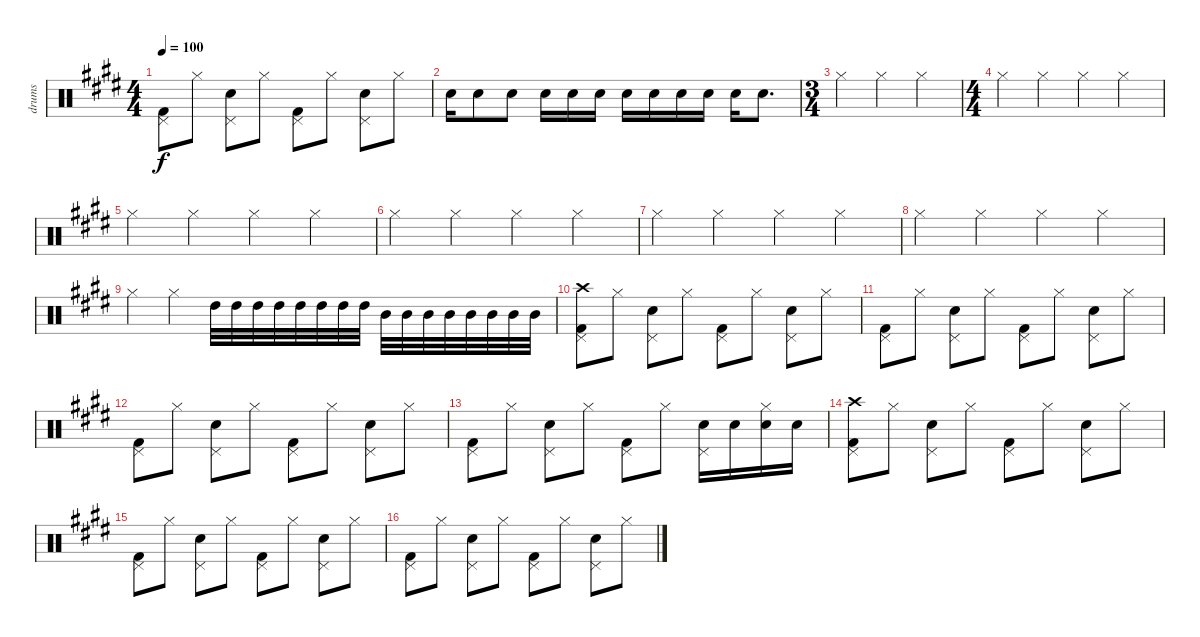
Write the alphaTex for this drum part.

\track ("drums" "drums") {instrument percussion}
\staff {score}
\articulation defaults
\ts (4 4)
\tempo 100
\clef neutral
\ks e
("Pedal Hi-Hat (hit)" "Kick (hit) 2").8{dy f} "Hi-Hat (closed)".8 ("Snare (hit) 2" "Pedal Hi-Hat (hit)").8 "Hi-Hat (closed)".8 ("Pedal Hi-Hat (hit)" "Kick (hit) 2").8 "Hi-Hat (closed)".8 ("Snare (hit) 2" "Pedal Hi-Hat (hit)").8 "Hi-Hat (closed)".8 |
"Snare (hit) 2".16 "Snare (hit) 2".8 "Snare (hit) 2".8 "Snare (hit) 2".16 "Snare (hit) 2".16 "Snare (hit) 2".16 "Snare (hit) 2".16 "Snare (hit) 2".16 "Snare (hit) 2".16 "Snare (hit) 2".16 "Snare (hit) 2".16 "Snare (hit) 2".8{d} |
\ts (3 4)
"Hi-Hat (closed)".4 "Hi-Hat (closed)".4 "Hi-Hat (closed)".4 |
\ts (4 4)
"Hi-Hat (closed)".4 "Hi-Hat (closed)".4 "Hi-Hat (closed)".4 "Hi-Hat (closed)".4 |
"Hi-Hat (closed)".4 "Hi-Hat (closed)".4 "Hi-Hat (closed)".4 "Hi-Hat (closed)".4 |
"Hi-Hat (closed)".4 "Hi-Hat (closed)".4 "Hi-Hat (closed)".4 "Hi-Hat (closed)".4 |
"Hi-Hat (closed)".4 "Hi-Hat (closed)".4 "Hi-Hat (closed)".4 "Hi-Hat (closed)".4 |
"Hi-Hat (closed)".4 "Hi-Hat (closed)".4 "Hi-Hat (closed)".4 "Hi-Hat (closed)".4 |
"Hi-Hat (closed)".4 "Hi-Hat (closed)".4 "High Tom (hit)".32 "High Tom (hit)".32 "High Tom (hit)".32 "High Tom (hit)".32 "High Tom (hit)".32 "High Tom (hit)".32 "High Tom (hit)".32 "High Tom (hit)".32 "Mid Tom (hit)".32 "Mid Tom (hit)".32 "Mid Tom (hit)".32 "Mid Tom (hit)".32 "Mid Tom (hit)".32 "Mid Tom (hit)".32 "Mid Tom (hit)".32 "Mid Tom (hit)".32 |
("Crash high (hit)" "Pedal Hi-Hat (hit)" "Kick (hit) 2").8 "Hi-Hat (closed)".8 ("Snare (hit) 2" "Pedal Hi-Hat (hit)").8 "Hi-Hat (closed)".8 ("Pedal Hi-Hat (hit)" "Kick (hit) 2").8 "Hi-Hat (closed)".8 ("Snare (hit) 2" "Pedal Hi-Hat (hit)").8 "Hi-Hat (closed)".8 |
("Pedal Hi-Hat (hit)" "Kick (hit) 2").8 "Hi-Hat (closed)".8 ("Snare (hit) 2" "Pedal Hi-Hat (hit)").8 "Hi-Hat (closed)".8 ("Pedal Hi-Hat (hit)" "Kick (hit) 2").8 "Hi-Hat (closed)".8 ("Snare (hit) 2" "Pedal Hi-Hat (hit)").8 "Hi-Hat (closed)".8 |
("Pedal Hi-Hat (hit)" "Kick (hit) 2").8 "Hi-Hat (closed)".8 ("Snare (hit) 2" "Pedal Hi-Hat (hit)").8 "Hi-Hat (closed)".8 ("Pedal Hi-Hat (hit)" "Kick (hit) 2").8 "Hi-Hat (closed)".8 ("Snare (hit) 2" "Pedal Hi-Hat (hit)").8 "Hi-Hat (closed)".8 |
("Pedal Hi-Hat (hit)" "Kick (hit) 2").8 "Hi-Hat (closed)".8 ("Snare (hit) 2" "Pedal Hi-Hat (hit)").8 "Hi-Hat (closed)".8 ("Pedal Hi-Hat (hit)" "Kick (hit) 2").8 "Hi-Hat (closed)".8 ("Snare (hit) 2" "Pedal Hi-Hat (hit)").16 "Snare (hit) 2".16 ("Snare (hit) 2" "Hi-Hat (closed)").16 "Snare (hit) 2".16 |
("Crash high (hit)" "Pedal Hi-Hat (hit)" "Kick (hit) 2").8 "Hi-Hat (closed)".8 ("Snare (hit) 2" "Pedal Hi-Hat (hit)").8 "Hi-Hat (closed)".8 ("Pedal Hi-Hat (hit)" "Kick (hit) 2").8 "Hi-Hat (closed)".8 ("Snare (hit) 2" "Pedal Hi-Hat (hit)").8 "Hi-Hat (closed)".8 |
("Pedal Hi-Hat (hit)" "Kick (hit) 2").8 "Hi-Hat (closed)".8 ("Snare (hit) 2" "Pedal Hi-Hat (hit)").8 "Hi-Hat (closed)".8 ("Pedal Hi-Hat (hit)" "Kick (hit) 2").8 "Hi-Hat (closed)".8 ("Snare (hit) 2" "Pedal Hi-Hat (hit)").8 "Hi-Hat (closed)".8 |
("Pedal Hi-Hat (hit)" "Kick (hit) 2").8 "Hi-Hat (closed)".8 ("Snare (hit) 2" "Pedal Hi-Hat (hit)").8 "Hi-Hat (closed)".8 ("Pedal Hi-Hat (hit)" "Kick (hit) 2").8 "Hi-Hat (closed)".8 ("Snare (hit) 2" "Pedal Hi-Hat (hit)").8 "Hi-Hat (closed)".8
